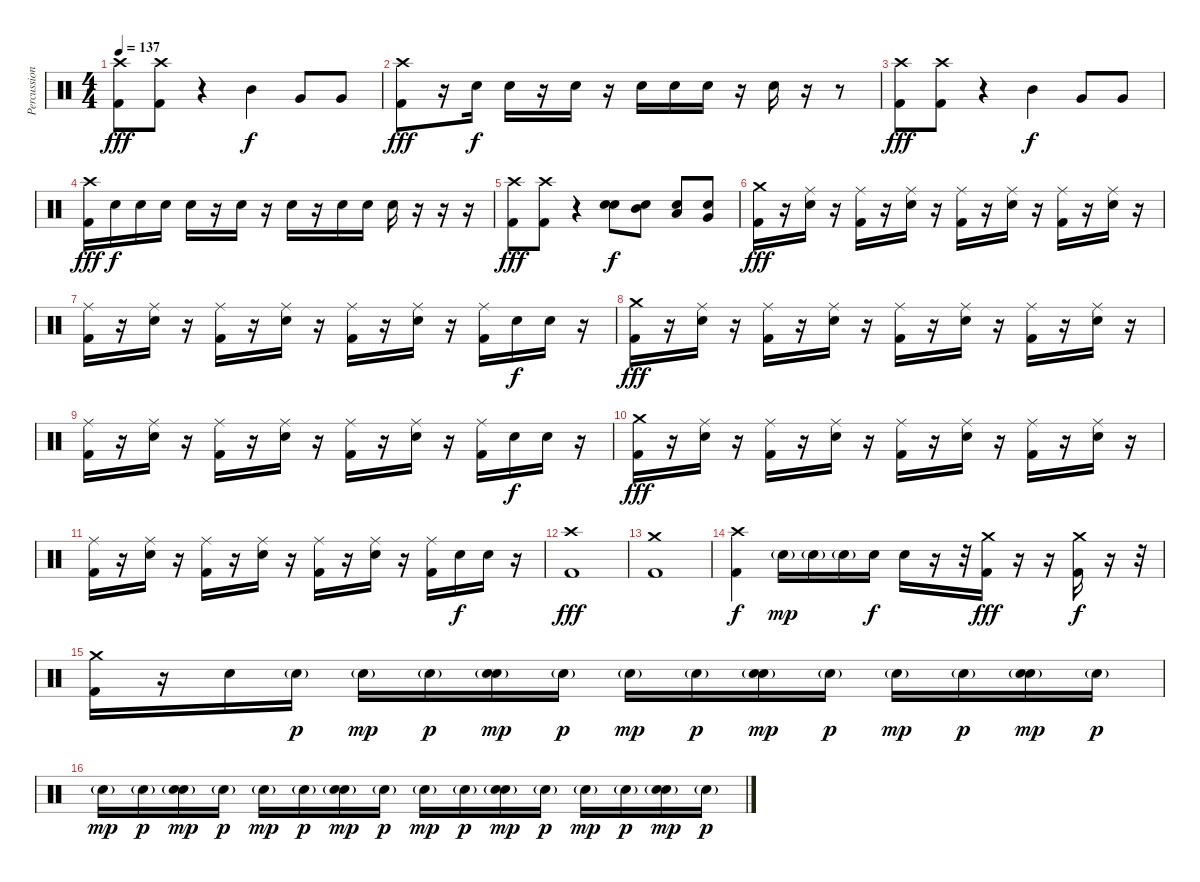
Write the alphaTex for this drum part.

\track ("Percussion" "Percussion") {instrument percussion}
\staff {score}
\articulation defaults
\ts (4 4)
\tempo 137
\clef neutral
\ks c
("Crash high (hit)" "Kick (hit) 2").8{dy fff} ("Crash high (hit)" "Kick (hit) 2").8 r.4 "Mid Tom (hit)".4{dy f} "Very Low Tom (hit)".8 "Very Low Tom (hit)".8 |
("Crash high (hit)" "Kick (hit) 2").8{dy fff} r.16 "Electric Snare (hit)".16{dy f} "Electric Snare (hit)".16 r.16 "Electric Snare (hit)".16 r.16 "Electric Snare (hit)".16 "Electric Snare (hit)".16 "Electric Snare (hit)".16 r.16 "Electric Snare (hit)".16 r.16 r.8 |
("Crash high (hit)" "Kick (hit) 2").8{dy fff} ("Crash high (hit)" "Kick (hit) 2").8 r.4 "Mid Tom (hit)".4{dy f} "Very Low Tom (hit)".8 "Very Low Tom (hit)".8 |
("Crash high (hit)" "Kick (hit) 2").16{dy fff} "Electric Snare (hit)".16{dy f} "Electric Snare (hit)".16 "Electric Snare (hit)".16 "Electric Snare (hit)".16 r.16 "Electric Snare (hit)".16 r.16 "Electric Snare (hit)".16 r.16 "Electric Snare (hit)".16 "Electric Snare (hit)".16 "Electric Snare (hit)".16 r.16 r.16 r.16 |
("Crash high (hit)" "Kick (hit) 2").8{dy fff} ("Crash high (hit)" "Kick (hit) 2").8 r.4 ("Electric Snare (hit)" "Electric Snare (hit)").8{bd 120 dy f} ("Mid Tom (hit)" "Electric Snare (hit)").8 ("Low Tom (hit)" "Electric Snare (hit)").8 ("Very Low Tom (hit)" "Electric Snare (hit)").8 |
("Crash medium (hit)" "Kick (hit) 2").16{dy fff} r.16 ("Ride (middle)" "Electric Snare (hit)").16 r.16 ("Ride (middle)" "Kick (hit) 2").16 r.16 ("Ride (middle)" "Electric Snare (hit)").16 r.16 ("Ride (middle)" "Kick (hit) 2").16 r.16 ("Ride (middle)" "Electric Snare (hit)").16 r.16 ("Ride (middle)" "Kick (hit) 2").16 r.16 ("Ride (middle)" "Electric Snare (hit)").16 r.16 |
("Ride (middle)" "Kick (hit) 2").16 r.16 ("Ride (middle)" "Electric Snare (hit)").16 r.16 ("Ride (middle)" "Kick (hit) 2").16 r.16 ("Ride (middle)" "Electric Snare (hit)").16 r.16 ("Ride (middle)" "Kick (hit) 2").16 r.16 ("Ride (middle)" "Electric Snare (hit)").16 r.16 ("Ride (middle)" "Kick (hit) 2").16 "Electric Snare (hit)".16{dy f} "Electric Snare (hit)".16 r.16 |
("Crash medium (hit)" "Kick (hit) 2").16{dy fff} r.16 ("Ride (middle)" "Electric Snare (hit)").16 r.16 ("Ride (middle)" "Kick (hit) 2").16 r.16 ("Ride (middle)" "Electric Snare (hit)").16 r.16 ("Ride (middle)" "Kick (hit) 2").16 r.16 ("Ride (middle)" "Electric Snare (hit)").16 r.16 ("Ride (middle)" "Kick (hit) 2").16 r.16 ("Ride (middle)" "Electric Snare (hit)").16 r.16 |
("Ride (middle)" "Kick (hit) 2").16 r.16 ("Ride (middle)" "Electric Snare (hit)").16 r.16 ("Ride (middle)" "Kick (hit) 2").16 r.16 ("Ride (middle)" "Electric Snare (hit)").16 r.16 ("Ride (middle)" "Kick (hit) 2").16 r.16 ("Ride (middle)" "Electric Snare (hit)").16 r.16 ("Ride (middle)" "Kick (hit) 2").16 "Electric Snare (hit)".16{dy f} "Electric Snare (hit)".16 r.16 |
("Crash medium (hit)" "Kick (hit) 2").16{dy fff} r.16 ("Ride (middle)" "Electric Snare (hit)").16 r.16 ("Ride (middle)" "Kick (hit) 2").16 r.16 ("Ride (middle)" "Electric Snare (hit)").16 r.16 ("Ride (middle)" "Kick (hit) 2").16 r.16 ("Ride (middle)" "Electric Snare (hit)").16 r.16 ("Ride (middle)" "Kick (hit) 2").16 r.16 ("Ride (middle)" "Electric Snare (hit)").16 r.16 |
("Ride (middle)" "Kick (hit) 2").16 r.16 ("Ride (middle)" "Electric Snare (hit)").16 r.16 ("Ride (middle)" "Kick (hit) 2").16 r.16 ("Ride (middle)" "Electric Snare (hit)").16 r.16 ("Ride (middle)" "Kick (hit) 2").16 r.16 ("Ride (middle)" "Electric Snare (hit)").16 r.16 ("Ride (middle)" "Kick (hit) 2").16 "Electric Snare (hit)".16{dy f} "Electric Snare (hit)".16 r.16 |
("Crash high (hit)" "Kick (hit) 2").1{dy fff} |
("Crash medium (hit)" "Kick (hit) 2").1 |
("Crash high (hit)" "Kick (hit) 2").4{dy f} "Electric Snare (hit)"{g}.16{dy mp} "Electric Snare (hit)"{g}.16 "Electric Snare (hit)"{g}.16 "Electric Snare (hit)".16{dy f} "Electric Snare (hit)".16 r.16 r.32 ("Crash medium (hit)" "Kick (hit) 2").16{dy fff} r.16 r.16 ("Crash medium (hit)" "Kick (hit) 2").16{dy f} r.16 r.32 |
("Crash medium (hit)" "Kick (hit) 2").16 r.16 "Electric Snare (hit)".16 "Electric Snare (hit)"{g}.16{dy p} "Electric Snare (hit)"{g}.16{dy mp} "Electric Snare (hit)"{g}.16{dy p} ("Electric Snare (hit)"{g} "Electric Snare (hit)").16{dy mp} "Electric Snare (hit)"{g}.16{dy p} "Electric Snare (hit)"{g}.16{dy mp} "Electric Snare (hit)"{g}.16{dy p} ("Electric Snare (hit)"{g} "Electric Snare (hit)").16{dy mp} "Electric Snare (hit)"{g}.16{dy p} "Electric Snare (hit)"{g}.16{dy mp} "Electric Snare (hit)"{g}.16{dy p} ("Electric Snare (hit)"{g} "Electric Snare (hit)").16{dy mp} "Electric Snare (hit)"{g}.16{dy p} |
"Electric Snare (hit)"{g}.16{dy mp} "Electric Snare (hit)"{g}.16{dy p} ("Electric Snare (hit)"{g} "Electric Snare (hit)").16{dy mp} "Electric Snare (hit)"{g}.16{dy p} "Electric Snare (hit)"{g}.16{dy mp} "Electric Snare (hit)"{g}.16{dy p} ("Electric Snare (hit)"{g} "Electric Snare (hit)").16{dy mp} "Electric Snare (hit)"{g}.16{dy p} "Electric Snare (hit)"{g}.16{dy mp} "Electric Snare (hit)"{g}.16{dy p} ("Electric Snare (hit)"{g} "Electric Snare (hit)").16{dy mp} "Electric Snare (hit)"{g}.16{dy p} "Electric Snare (hit)"{g}.16{dy mp} "Electric Snare (hit)"{g}.16{dy p} ("Electric Snare (hit)"{g} "Electric Snare (hit)").16{dy mp} "Electric Snare (hit)"{g}.16{dy p}
